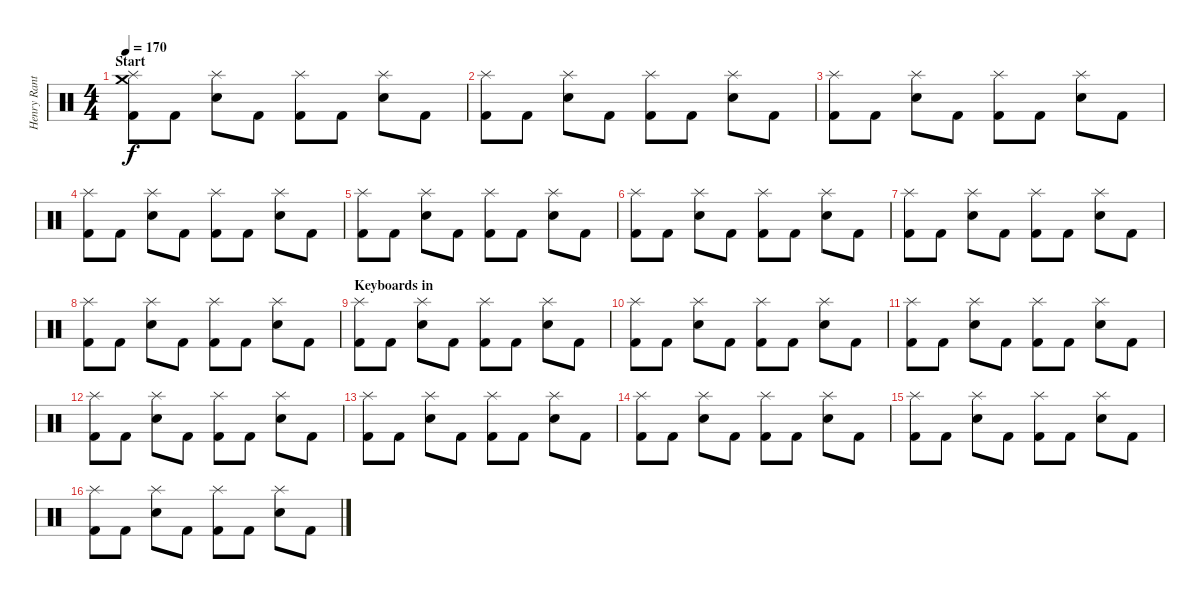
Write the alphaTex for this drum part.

\track ("Henry Ranta -Drums-" "Henry Rant") {instrument percussion}
\staff {score}
\articulation defaults
\ts (4 4)
\section ("" "Start")
\tempo 170
\clef neutral
\ks c
("Splash (hit)" "Crash medium (hit)" "Kick (hit) 2").8{dy f} "Kick (hit) 2".8 ("Splash (hit)" "Snare (hit) 2").8 "Kick (hit) 2".8 ("Splash (hit)" "Kick (hit) 2").8 "Kick (hit) 2".8 ("Splash (hit)" "Snare (hit) 2").8 "Kick (hit) 2".8 |
("Splash (hit)" "Kick (hit) 2").8 "Kick (hit) 2".8 ("Splash (hit)" "Snare (hit) 2").8 "Kick (hit) 2".8 ("Splash (hit)" "Kick (hit) 2").8 "Kick (hit) 2".8 ("Splash (hit)" "Snare (hit) 2").8 "Kick (hit) 2".8 |
("Splash (hit)" "Kick (hit) 2").8 "Kick (hit) 2".8 ("Splash (hit)" "Snare (hit) 2").8 "Kick (hit) 2".8 ("Splash (hit)" "Kick (hit) 2").8 "Kick (hit) 2".8 ("Splash (hit)" "Snare (hit) 2").8 "Kick (hit) 2".8 |
("Splash (hit)" "Kick (hit) 2").8 "Kick (hit) 2".8 ("Splash (hit)" "Snare (hit) 2").8 "Kick (hit) 2".8 ("Splash (hit)" "Kick (hit) 2").8 "Kick (hit) 2".8 ("Splash (hit)" "Snare (hit) 2").8 "Kick (hit) 2".8 |
("Splash (hit)" "Kick (hit) 2").8 "Kick (hit) 2".8 ("Splash (hit)" "Snare (hit) 2").8 "Kick (hit) 2".8 ("Splash (hit)" "Kick (hit) 2").8 "Kick (hit) 2".8 ("Splash (hit)" "Snare (hit) 2").8 "Kick (hit) 2".8 |
("Splash (hit)" "Kick (hit) 2").8 "Kick (hit) 2".8 ("Splash (hit)" "Snare (hit) 2").8 "Kick (hit) 2".8 ("Splash (hit)" "Kick (hit) 2").8 "Kick (hit) 2".8 ("Splash (hit)" "Snare (hit) 2").8 "Kick (hit) 2".8 |
("Splash (hit)" "Kick (hit) 2").8 "Kick (hit) 2".8 ("Splash (hit)" "Snare (hit) 2").8 "Kick (hit) 2".8 ("Splash (hit)" "Kick (hit) 2").8 "Kick (hit) 2".8 ("Splash (hit)" "Snare (hit) 2").8 "Kick (hit) 2".8 |
("Splash (hit)" "Kick (hit) 2").8 "Kick (hit) 2".8 ("Splash (hit)" "Snare (hit) 2").8 "Kick (hit) 2".8 ("Splash (hit)" "Kick (hit) 2").8 "Kick (hit) 2".8 ("Splash (hit)" "Snare (hit) 2").8 "Kick (hit) 2".8 |
\section ("" "Keyboards in")
("Splash (hit)" "Kick (hit) 2").8 "Kick (hit) 2".8 ("Splash (hit)" "Snare (hit) 2").8 "Kick (hit) 2".8 ("Splash (hit)" "Kick (hit) 2").8 "Kick (hit) 2".8 ("Splash (hit)" "Snare (hit) 2").8 "Kick (hit) 2".8 |
("Splash (hit)" "Kick (hit) 2").8 "Kick (hit) 2".8 ("Splash (hit)" "Snare (hit) 2").8 "Kick (hit) 2".8 ("Splash (hit)" "Kick (hit) 2").8 "Kick (hit) 2".8 ("Splash (hit)" "Snare (hit) 2").8 "Kick (hit) 2".8 |
("Splash (hit)" "Kick (hit) 2").8 "Kick (hit) 2".8 ("Splash (hit)" "Snare (hit) 2").8 "Kick (hit) 2".8 ("Splash (hit)" "Kick (hit) 2").8 "Kick (hit) 2".8 ("Splash (hit)" "Snare (hit) 2").8 "Kick (hit) 2".8 |
("Splash (hit)" "Kick (hit) 2").8 "Kick (hit) 2".8 ("Splash (hit)" "Snare (hit) 2").8 "Kick (hit) 2".8 ("Splash (hit)" "Kick (hit) 2").8 "Kick (hit) 2".8 ("Splash (hit)" "Snare (hit) 2").8 "Kick (hit) 2".8 |
("Splash (hit)" "Kick (hit) 2").8 "Kick (hit) 2".8 ("Splash (hit)" "Snare (hit) 2").8 "Kick (hit) 2".8 ("Splash (hit)" "Kick (hit) 2").8 "Kick (hit) 2".8 ("Splash (hit)" "Snare (hit) 2").8 "Kick (hit) 2".8 |
("Splash (hit)" "Kick (hit) 2").8 "Kick (hit) 2".8 ("Splash (hit)" "Snare (hit) 2").8 "Kick (hit) 2".8 ("Splash (hit)" "Kick (hit) 2").8 "Kick (hit) 2".8 ("Splash (hit)" "Snare (hit) 2").8 "Kick (hit) 2".8 |
("Splash (hit)" "Kick (hit) 2").8 "Kick (hit) 2".8 ("Splash (hit)" "Snare (hit) 2").8 "Kick (hit) 2".8 ("Splash (hit)" "Kick (hit) 2").8 "Kick (hit) 2".8 ("Splash (hit)" "Snare (hit) 2").8 "Kick (hit) 2".8 |
("Splash (hit)" "Kick (hit) 2").8 "Kick (hit) 2".8 ("Splash (hit)" "Snare (hit) 2").8 "Kick (hit) 2".8 ("Splash (hit)" "Kick (hit) 2").8 "Kick (hit) 2".8 ("Splash (hit)" "Snare (hit) 2").8 "Kick (hit) 2".8
